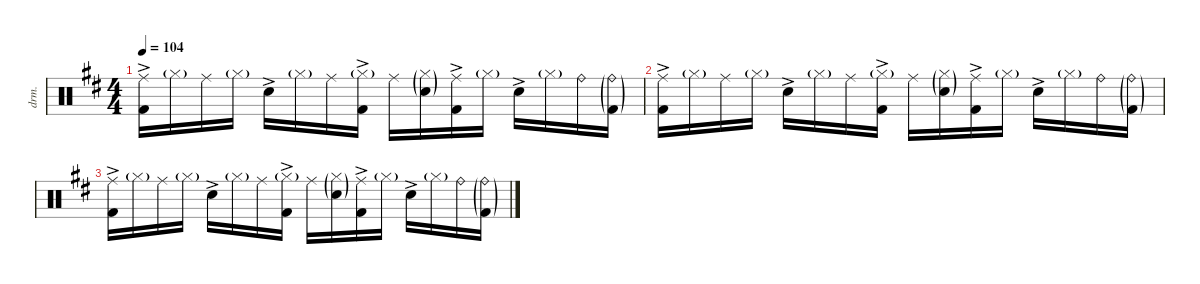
\defaultSystemsLayout 4
\hideDynamics
\bracketExtendMode nobrackets
\otherSystemsTrackNameOrientation horizontal
\track ("Drums" "drm.") {instrument percussion}
\staff {score}
\articulation defaults
\ts (4 4)
\tempo 104
\clef neutral
\ks d
("Ride (middle)"{acc forcenatural} "Kick (hit) 2"{ac acc forcenatural}).16{dy f} "Hi-Hat (closed)"{g acc forcenatural}.16{dy mf} "Ride (middle)"{acc forcenatural}.16{dy f} "Hi-Hat (closed)"{g acc forcenatural}.16{dy mf} "Snare (hit) 2"{ac acc forcenatural}.16{dy f} "Hi-Hat (closed)"{g acc forcenatural}.16{dy mf} "Ride (middle)"{acc forcenatural}.16{dy f} ("Hi-Hat (closed)"{g acc forcenatural} "Kick (hit) 2"{ac acc forcenatural}).16{dy mf} "Ride (middle)"{acc forcenatural}.16{dy f} ("Hi-Hat (closed)"{g acc forcenatural} "Snare (hit) 2"{g acc forcenatural}).16{dy mf} ("Ride (middle)"{acc forcenatural} "Kick (hit) 2"{ac acc forcenatural}).16{dy f} "Hi-Hat (closed)"{g acc forcenatural}.16{dy mf} "Snare (hit) 2"{ac acc forcenatural}.16{dy f} "Hi-Hat (closed)"{g acc forcenatural}.16{dy mf} "Ride (bell)"{acc forcenatural}.16{dy f} ("Ride (bell)"{g acc forcenatural} "Kick (hit) 2"{g acc forcenatural}).16{dy mf} |
("Ride (middle)"{acc forcenatural} "Kick (hit) 2"{ac acc forcenatural}).16{dy f} "Hi-Hat (closed)"{g acc forcenatural}.16{dy mf} "Ride (middle)"{acc forcenatural}.16{dy f} "Hi-Hat (closed)"{g acc forcenatural}.16{dy mf} "Snare (hit) 2"{ac acc forcenatural}.16{dy f} "Hi-Hat (closed)"{g acc forcenatural}.16{dy mf} "Ride (middle)"{acc forcenatural}.16{dy f} ("Hi-Hat (closed)"{g acc forcenatural} "Kick (hit) 2"{ac acc forcenatural}).16{dy mf} "Ride (middle)"{acc forcenatural}.16{dy f} ("Hi-Hat (closed)"{g acc forcenatural} "Snare (hit) 2"{g acc forcenatural}).16{dy mf} ("Ride (middle)"{acc forcenatural} "Kick (hit) 2"{ac acc forcenatural}).16{dy f} "Hi-Hat (closed)"{g acc forcenatural}.16{dy mf} "Snare (hit) 2"{ac acc forcenatural}.16{dy f} "Hi-Hat (closed)"{g acc forcenatural}.16{dy mf} "Ride (bell)"{acc forcenatural}.16{dy f} ("Ride (bell)"{g acc forcenatural} "Kick (hit) 2"{g acc forcenatural}).16{dy mf} |
("Ride (middle)"{acc forcenatural} "Kick (hit) 2"{ac acc forcenatural}).16{dy f} "Hi-Hat (closed)"{g acc forcenatural}.16{dy mf} "Ride (middle)"{acc forcenatural}.16{dy f} "Hi-Hat (closed)"{g acc forcenatural}.16{dy mf} "Snare (hit) 2"{ac acc forcenatural}.16{dy f} "Hi-Hat (closed)"{g acc forcenatural}.16{dy mf} "Ride (middle)"{acc forcenatural}.16{dy f} ("Hi-Hat (closed)"{g acc forcenatural} "Kick (hit) 2"{ac acc forcenatural}).16{dy mf} "Ride (middle)"{acc forcenatural}.16{dy f} ("Hi-Hat (closed)"{g acc forcenatural} "Snare (hit) 2"{g acc forcenatural}).16{dy mf} ("Ride (middle)"{acc forcenatural} "Kick (hit) 2"{ac acc forcenatural}).16{dy f} "Hi-Hat (closed)"{g acc forcenatural}.16{dy mf} "Snare (hit) 2"{ac acc forcenatural}.16{dy f} "Hi-Hat (closed)"{g acc forcenatural}.16{dy mf} "Ride (bell)"{acc forcenatural}.16{dy f} ("Ride (bell)"{g acc forcenatural} "Kick (hit) 2"{g acc forcenatural}).16{dy mf}
